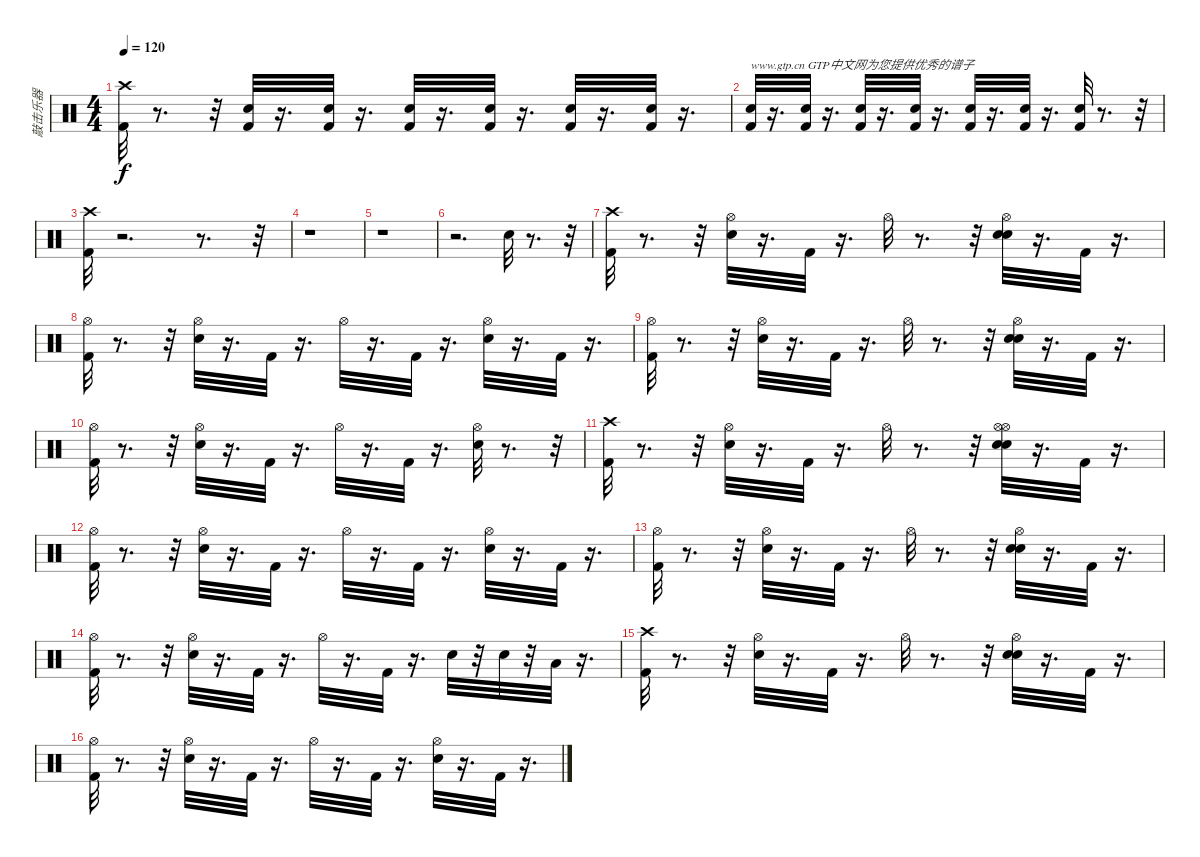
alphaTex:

\track ("敲击乐器" "敲击乐器") {instrument percussion}
\staff {score}
\articulation defaults
\ts (4 4)
\tempo 120
\clef neutral
\ks c
("Kick (hit) 2" "Crash high (hit)").32{dy f} r.8{d} r.32 ("Kick (hit) 2" "Snare (hit) 2").32 r.16{d} ("Kick (hit) 2" "Snare (hit) 2").32 r.16{d} ("Kick (hit) 2" "Snare (hit) 2").32 r.16{d} ("Kick (hit) 2" "Snare (hit) 2").32 r.16{d} ("Kick (hit) 2" "Snare (hit) 2").32 r.16{d} ("Kick (hit) 2" "Snare (hit) 2").32 r.16{d} |
("Snare (hit) 2" "Kick (hit) 2").32{txt "www.gtp.cn GTP中文网为您提供优秀的谱子"} r.16{d} ("Kick (hit) 2" "Snare (hit) 2").32 r.16{d} ("Kick (hit) 2" "Snare (hit) 2").32 r.16{d} ("Kick (hit) 2" "Snare (hit) 2").32 r.16{d} ("Snare (hit) 2" "Kick (hit) 2").32 r.16{d} ("Kick (hit) 2" "Snare (hit) 2").32 r.16{d} ("Kick (hit) 2" "Snare (hit) 2").32 r.8{d} r.32 |
("Kick (hit) 2" "Crash high (hit)").32 r.2{d} r.8{d} r.32 |
r.1 |
r.1 |
r.2{d} "Snare (hit) 2".32 r.8{d} r.32 |
("Kick (hit) 2" "Crash high (hit)").32 r.8{d} r.32 ("Snare (hit) 2" "Hi-Hat (open)").32 r.16{d} "Kick (hit) 2".32 r.16{d} "Hi-Hat (open)".32 r.8{d} r.32 ("Snare (hit) 2" "Hi-Hat (open)" "Snare (hit) 2").32 r.16{d} "Kick (hit) 2".32 r.16{d} |
("Kick (hit) 2" "Hi-Hat (open)").32 r.8{d} r.32 ("Snare (hit) 2" "Hi-Hat (open)").32 r.16{d} "Kick (hit) 2".32 r.16{d} "Hi-Hat (open)".32 r.16{d} "Kick (hit) 2".32 r.16{d} ("Hi-Hat (open)" "Snare (hit) 2").32 r.16{d} "Kick (hit) 2".32 r.16{d} |
("Hi-Hat (open)" "Kick (hit) 2").32 r.8{d} r.32 ("Snare (hit) 2" "Hi-Hat (open)").32 r.16{d} "Kick (hit) 2".32 r.16{d} "Hi-Hat (open)".32 r.8{d} r.32 ("Snare (hit) 2" "Hi-Hat (open)" "Snare (hit) 2").32 r.16{d} "Kick (hit) 2".32 r.16{d} |
("Hi-Hat (open)" "Kick (hit) 2").32 r.8{d} r.32 ("Snare (hit) 2" "Hi-Hat (open)").32 r.16{d} "Kick (hit) 2".32 r.16{d} "Hi-Hat (open)".32 r.16{d} "Kick (hit) 2".32 r.16{d} ("Snare (hit) 2" "Hi-Hat (open)").32 r.8{d} r.32 |
("Kick (hit) 2" "Crash high (hit)").32 r.8{d} r.32 ("Snare (hit) 2" "Hi-Hat (open)").32 r.16{d} "Kick (hit) 2".32 r.16{d} "Hi-Hat (open)".32 r.8{d} r.32 ("Snare (hit) 2" "Hi-Hat (open)" "Snare (hit) 2" "Hi-Hat (open)").32 r.16{d} "Kick (hit) 2".32 r.16{d} |
("Kick (hit) 2" "Hi-Hat (open)").32 r.8{d} r.32 ("Snare (hit) 2" "Hi-Hat (open)").32 r.16{d} "Kick (hit) 2".32 r.16{d} "Hi-Hat (open)".32 r.16{d} "Kick (hit) 2".32 r.16{d} ("Snare (hit) 2" "Hi-Hat (open)").32 r.16{d} "Kick (hit) 2".32 r.16{d} |
("Hi-Hat (open)" "Kick (hit) 2").32 r.8{d} r.32 ("Snare (hit) 2" "Hi-Hat (open)").32 r.16{d} "Kick (hit) 2".32 r.16{d} "Hi-Hat (open)".32 r.8{d} r.32 ("Snare (hit) 2" "Snare (hit) 2" "Hi-Hat (open)").32 r.16{d} "Kick (hit) 2".32 r.16{d} |
("Kick (hit) 2" "Hi-Hat (open)").32 r.8{d} r.32 ("Snare (hit) 2" "Hi-Hat (open)").32 r.16{d} "Kick (hit) 2".32 r.16{d} "Hi-Hat (open)".32 r.16{d} "Kick (hit) 2".32 r.16{d} "Snare (hit) 2".32 r.32 "Snare (hit) 2".32 r.32 "Low Floor Tom (hit)".32 r.16{d} |
("Kick (hit) 2" "Crash high (hit)").32 r.8{d} r.32 ("Snare (hit) 2" "Hi-Hat (open)").32 r.16{d} "Kick (hit) 2".32 r.16{d} "Hi-Hat (open)".32 r.8{d} r.32 ("Snare (hit) 2" "Snare (hit) 2" "Hi-Hat (open)").32 r.16{d} "Kick (hit) 2".32 r.16{d} |
("Kick (hit) 2" "Hi-Hat (open)").32 r.8{d} r.32 ("Snare (hit) 2" "Hi-Hat (open)").32 r.16{d} "Kick (hit) 2".32 r.16{d} "Hi-Hat (open)".32 r.16{d} "Kick (hit) 2".32 r.16{d} ("Hi-Hat (open)" "Snare (hit) 2").32 r.16{d} "Kick (hit) 2".32 r.16{d}
